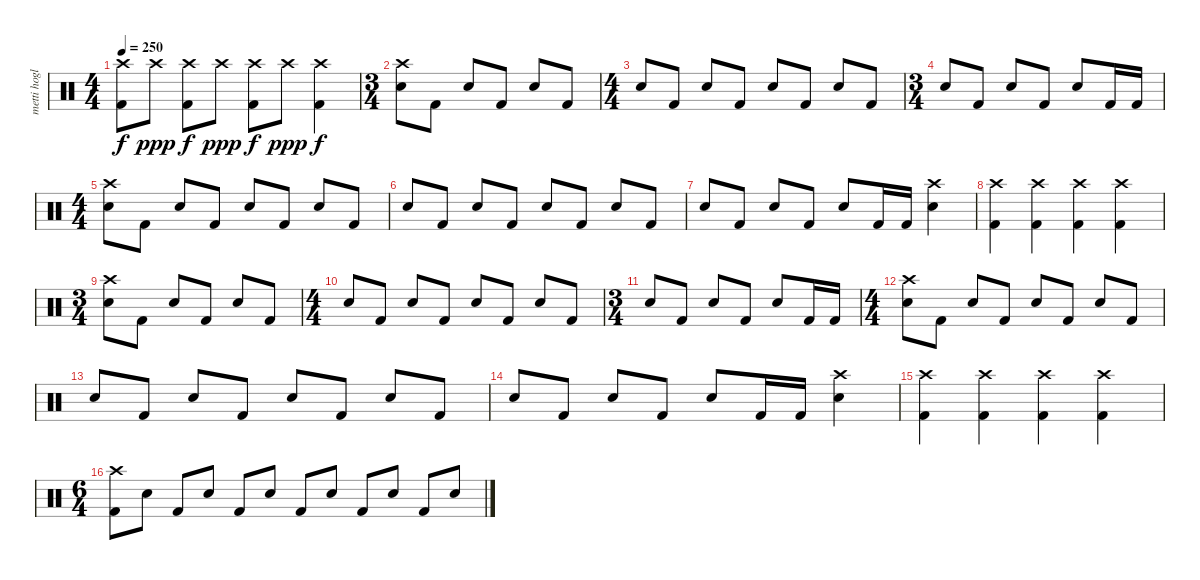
\track ("metti hoglan" "metti hogl") {instrument percussion}
\staff {score}
\articulation defaults
\ts (4 4)
\tempo 250
\clef neutral
\ks c
("Crash high (hit)" "Kick (hit) 2").8{dy f} "Crash high (hit)".8{dy ppp} ("Crash high (hit)" "Kick (hit) 2").8{dy f} "Crash high (hit)".8{dy ppp} ("Crash high (hit)" "Kick (hit) 2").8{dy f} "Crash high (hit)".8{dy ppp} ("Crash high (hit)" "Kick (hit) 2").4{dy f} |
\ts (3 4)
("Crash high (hit)" "Snare (hit) 2").8 "Kick (hit) 2".8 "Snare (hit) 2".8 "Kick (hit) 2".8 "Snare (hit) 2".8 "Kick (hit) 2".8 |
\ts (4 4)
"Snare (hit) 2".8 "Kick (hit) 2".8 "Snare (hit) 2".8 "Kick (hit) 2".8 "Snare (hit) 2".8 "Kick (hit) 2".8 "Snare (hit) 2".8 "Kick (hit) 2".8 |
\ts (3 4)
"Snare (hit) 2".8 "Kick (hit) 2".8 "Snare (hit) 2".8 "Kick (hit) 2".8 "Snare (hit) 2".8 "Kick (hit) 2".16 "Kick (hit) 2".16 |
\ts (4 4)
("Crash high (hit)" "Snare (hit) 2").8 "Kick (hit) 2".8 "Snare (hit) 2".8 "Kick (hit) 2".8 "Snare (hit) 2".8 "Kick (hit) 2".8 "Snare (hit) 2".8 "Kick (hit) 2".8 |
"Snare (hit) 2".8 "Kick (hit) 2".8 "Snare (hit) 2".8 "Kick (hit) 2".8 "Snare (hit) 2".8 "Kick (hit) 2".8 "Snare (hit) 2".8 "Kick (hit) 2".8 |
"Snare (hit) 2".8 "Kick (hit) 2".8 "Snare (hit) 2".8 "Kick (hit) 2".8 "Snare (hit) 2".8 "Kick (hit) 2".16 "Kick (hit) 2".16 ("Crash high (hit)" "Snare (hit) 2").4 |
("Crash high (hit)" "Kick (hit) 2").4 ("Crash high (hit)" "Kick (hit) 2").4 ("Crash high (hit)" "Kick (hit) 2").4 ("Crash high (hit)" "Kick (hit) 2").4 |
\ts (3 4)
("Crash high (hit)" "Snare (hit) 2").8 "Kick (hit) 2".8 "Snare (hit) 2".8 "Kick (hit) 2".8 "Snare (hit) 2".8 "Kick (hit) 2".8 |
\ts (4 4)
"Snare (hit) 2".8 "Kick (hit) 2".8 "Snare (hit) 2".8 "Kick (hit) 2".8 "Snare (hit) 2".8 "Kick (hit) 2".8 "Snare (hit) 2".8 "Kick (hit) 2".8 |
\ts (3 4)
"Snare (hit) 2".8 "Kick (hit) 2".8 "Snare (hit) 2".8 "Kick (hit) 2".8 "Snare (hit) 2".8 "Kick (hit) 2".16 "Kick (hit) 2".16 |
\ts (4 4)
("Crash high (hit)" "Snare (hit) 2").8 "Kick (hit) 2".8 "Snare (hit) 2".8 "Kick (hit) 2".8 "Snare (hit) 2".8 "Kick (hit) 2".8 "Snare (hit) 2".8 "Kick (hit) 2".8 |
"Snare (hit) 2".8 "Kick (hit) 2".8 "Snare (hit) 2".8 "Kick (hit) 2".8 "Snare (hit) 2".8 "Kick (hit) 2".8 "Snare (hit) 2".8 "Kick (hit) 2".8 |
"Snare (hit) 2".8 "Kick (hit) 2".8 "Snare (hit) 2".8 "Kick (hit) 2".8 "Snare (hit) 2".8 "Kick (hit) 2".16 "Kick (hit) 2".16 ("Crash high (hit)" "Snare (hit) 2").4 |
("Crash high (hit)" "Kick (hit) 2").4 ("Crash high (hit)" "Kick (hit) 2").4 ("Crash high (hit)" "Kick (hit) 2").4 ("Crash high (hit)" "Kick (hit) 2").4 |
\ts (6 4)
("Crash high (hit)" "Kick (hit) 2").8 "Snare (hit) 2".8 "Kick (hit) 2".8 "Snare (hit) 2".8 "Kick (hit) 2".8 "Snare (hit) 2".8 "Kick (hit) 2".8 "Snare (hit) 2".8 "Kick (hit) 2".8 "Snare (hit) 2".8 "Kick (hit) 2".8 "Snare (hit) 2".8
